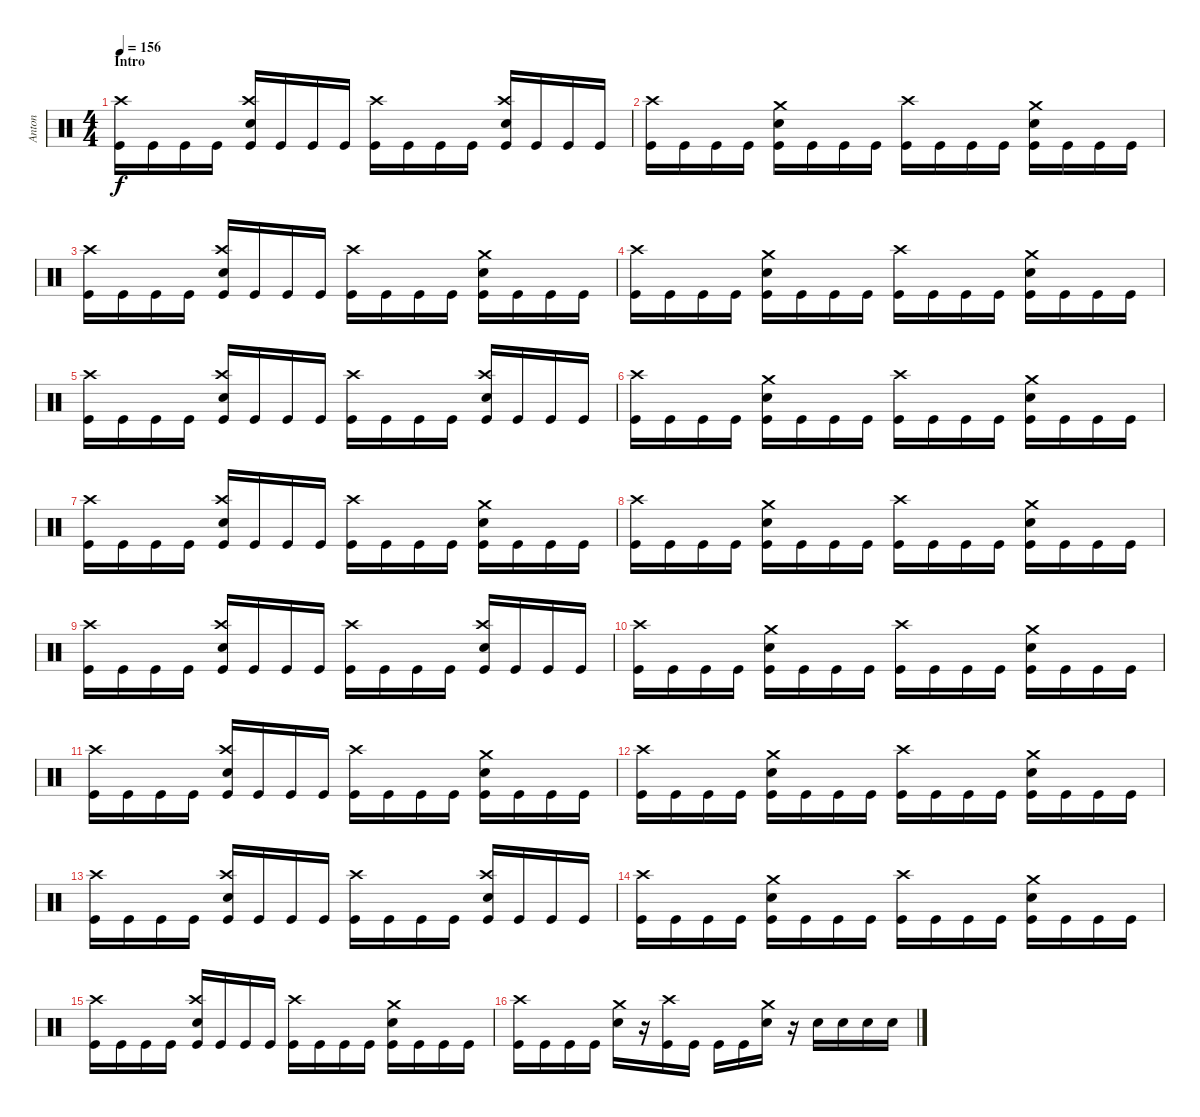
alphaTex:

\track ("Anton " "Anton ") {instrument percussion}
\staff
\articulation defaults
\ts (4 4)
\section ("" "Intro")
\tempo 156
\clef neutral
\ks c
("Kick (hit)" "Crash high (hit)").16{dy f} "Kick (hit)".16 "Kick (hit)".16 "Kick (hit)".16 ("Kick (hit)" "Crash high (hit)" "Snare (hit) 2").16 "Kick (hit)".16 "Kick (hit)".16 "Kick (hit)".16 ("Kick (hit)" "Crash high (hit)").16 "Kick (hit)".16 "Kick (hit)".16 "Kick (hit)".16 ("Kick (hit)" "Crash high (hit)" "Snare (hit) 2").16 "Kick (hit)".16 "Kick (hit)".16 "Kick (hit)".16 |
("Kick (hit)" "Crash high (hit)").16 "Kick (hit)".16 "Kick (hit)".16 "Kick (hit)".16 ("Kick (hit)" "Crash medium (hit)" "Snare (hit) 2").16 "Kick (hit)".16 "Kick (hit)".16 "Kick (hit)".16 ("Kick (hit)" "Crash high (hit)").16 "Kick (hit)".16 "Kick (hit)".16 "Kick (hit)".16 ("Kick (hit)" "Crash medium (hit)" "Snare (hit) 2").16 "Kick (hit)".16 "Kick (hit)".16 "Kick (hit)".16 |
("Kick (hit)" "Crash high (hit)").16 "Kick (hit)".16 "Kick (hit)".16 "Kick (hit)".16 ("Kick (hit)" "Crash high (hit)" "Snare (hit) 2").16 "Kick (hit)".16 "Kick (hit)".16 "Kick (hit)".16 ("Kick (hit)" "Crash high (hit)").16 "Kick (hit)".16 "Kick (hit)".16 "Kick (hit)".16 ("Kick (hit)" "Snare (hit) 2" "Crash medium (hit)").16 "Kick (hit)".16 "Kick (hit)".16 "Kick (hit)".16 |
("Kick (hit)" "Crash high (hit)").16 "Kick (hit)".16 "Kick (hit)".16 "Kick (hit)".16 ("Kick (hit)" "Crash medium (hit)" "Snare (hit) 2").16 "Kick (hit)".16 "Kick (hit)".16 "Kick (hit)".16 ("Kick (hit)" "Crash high (hit)").16 "Kick (hit)".16 "Kick (hit)".16 "Kick (hit)".16 ("Kick (hit)" "Crash medium (hit)" "Snare (hit) 2").16 "Kick (hit)".16 "Kick (hit)".16 "Kick (hit)".16 |
("Kick (hit)" "Crash high (hit)").16 "Kick (hit)".16 "Kick (hit)".16 "Kick (hit)".16 ("Kick (hit)" "Crash high (hit)" "Snare (hit) 2").16 "Kick (hit)".16 "Kick (hit)".16 "Kick (hit)".16 ("Kick (hit)" "Crash high (hit)").16 "Kick (hit)".16 "Kick (hit)".16 "Kick (hit)".16 ("Kick (hit)" "Crash high (hit)" "Snare (hit) 2").16 "Kick (hit)".16 "Kick (hit)".16 "Kick (hit)".16 |
("Kick (hit)" "Crash high (hit)").16 "Kick (hit)".16 "Kick (hit)".16 "Kick (hit)".16 ("Kick (hit)" "Crash medium (hit)" "Snare (hit) 2").16 "Kick (hit)".16 "Kick (hit)".16 "Kick (hit)".16 ("Kick (hit)" "Crash high (hit)").16 "Kick (hit)".16 "Kick (hit)".16 "Kick (hit)".16 ("Kick (hit)" "Crash medium (hit)" "Snare (hit) 2").16 "Kick (hit)".16 "Kick (hit)".16 "Kick (hit)".16 |
("Kick (hit)" "Crash high (hit)").16 "Kick (hit)".16 "Kick (hit)".16 "Kick (hit)".16 ("Kick (hit)" "Crash high (hit)" "Snare (hit) 2").16 "Kick (hit)".16 "Kick (hit)".16 "Kick (hit)".16 ("Kick (hit)" "Crash high (hit)").16 "Kick (hit)".16 "Kick (hit)".16 "Kick (hit)".16 ("Kick (hit)" "Snare (hit) 2" "Crash medium (hit)").16 "Kick (hit)".16 "Kick (hit)".16 "Kick (hit)".16 |
("Kick (hit)" "Crash high (hit)").16 "Kick (hit)".16 "Kick (hit)".16 "Kick (hit)".16 ("Kick (hit)" "Crash medium (hit)" "Snare (hit) 2").16 "Kick (hit)".16 "Kick (hit)".16 "Kick (hit)".16 ("Kick (hit)" "Crash high (hit)").16 "Kick (hit)".16 "Kick (hit)".16 "Kick (hit)".16 ("Kick (hit)" "Crash medium (hit)" "Snare (hit) 2").16 "Kick (hit)".16 "Kick (hit)".16 "Kick (hit)".16 |
("Kick (hit)" "Crash high (hit)").16 "Kick (hit)".16 "Kick (hit)".16 "Kick (hit)".16 ("Kick (hit)" "Crash high (hit)" "Snare (hit) 2").16 "Kick (hit)".16 "Kick (hit)".16 "Kick (hit)".16 ("Kick (hit)" "Crash high (hit)").16 "Kick (hit)".16 "Kick (hit)".16 "Kick (hit)".16 ("Kick (hit)" "Crash high (hit)" "Snare (hit) 2").16 "Kick (hit)".16 "Kick (hit)".16 "Kick (hit)".16 |
("Kick (hit)" "Crash high (hit)").16 "Kick (hit)".16 "Kick (hit)".16 "Kick (hit)".16 ("Kick (hit)" "Crash medium (hit)" "Snare (hit) 2").16 "Kick (hit)".16 "Kick (hit)".16 "Kick (hit)".16 ("Kick (hit)" "Crash high (hit)").16 "Kick (hit)".16 "Kick (hit)".16 "Kick (hit)".16 ("Kick (hit)" "Crash medium (hit)" "Snare (hit) 2").16 "Kick (hit)".16 "Kick (hit)".16 "Kick (hit)".16 |
("Kick (hit)" "Crash high (hit)").16 "Kick (hit)".16 "Kick (hit)".16 "Kick (hit)".16 ("Kick (hit)" "Crash high (hit)" "Snare (hit) 2").16 "Kick (hit)".16 "Kick (hit)".16 "Kick (hit)".16 ("Kick (hit)" "Crash high (hit)").16 "Kick (hit)".16 "Kick (hit)".16 "Kick (hit)".16 ("Kick (hit)" "Snare (hit) 2" "Crash medium (hit)").16 "Kick (hit)".16 "Kick (hit)".16 "Kick (hit)".16 |
("Kick (hit)" "Crash high (hit)").16 "Kick (hit)".16 "Kick (hit)".16 "Kick (hit)".16 ("Kick (hit)" "Crash medium (hit)" "Snare (hit) 2").16 "Kick (hit)".16 "Kick (hit)".16 "Kick (hit)".16 ("Kick (hit)" "Crash high (hit)").16 "Kick (hit)".16 "Kick (hit)".16 "Kick (hit)".16 ("Kick (hit)" "Crash medium (hit)" "Snare (hit) 2").16 "Kick (hit)".16 "Kick (hit)".16 "Kick (hit)".16 |
("Kick (hit)" "Crash high (hit)").16 "Kick (hit)".16 "Kick (hit)".16 "Kick (hit)".16 ("Kick (hit)" "Crash high (hit)" "Snare (hit) 2").16 "Kick (hit)".16 "Kick (hit)".16 "Kick (hit)".16 ("Kick (hit)" "Crash high (hit)").16 "Kick (hit)".16 "Kick (hit)".16 "Kick (hit)".16 ("Kick (hit)" "Crash high (hit)" "Snare (hit) 2").16 "Kick (hit)".16 "Kick (hit)".16 "Kick (hit)".16 |
("Kick (hit)" "Crash high (hit)").16 "Kick (hit)".16 "Kick (hit)".16 "Kick (hit)".16 ("Kick (hit)" "Crash medium (hit)" "Snare (hit) 2").16 "Kick (hit)".16 "Kick (hit)".16 "Kick (hit)".16 ("Kick (hit)" "Crash high (hit)").16 "Kick (hit)".16 "Kick (hit)".16 "Kick (hit)".16 ("Kick (hit)" "Crash medium (hit)" "Snare (hit) 2").16 "Kick (hit)".16 "Kick (hit)".16 "Kick (hit)".16 |
("Kick (hit)" "Crash high (hit)").16 "Kick (hit)".16 "Kick (hit)".16 "Kick (hit)".16 ("Kick (hit)" "Crash high (hit)" "Snare (hit) 2").16 "Kick (hit)".16 "Kick (hit)".16 "Kick (hit)".16 ("Kick (hit)" "Crash high (hit)").16 "Kick (hit)".16 "Kick (hit)".16 "Kick (hit)".16 ("Kick (hit)" "Snare (hit) 2" "Crash medium (hit)").16 "Kick (hit)".16 "Kick (hit)".16 "Kick (hit)".16 |
("Kick (hit)" "Crash high (hit)").16 "Kick (hit)".16 "Kick (hit)".16 "Kick (hit)".16 ("Crash medium (hit)" "Snare (hit) 2").16 r.16 ("Kick (hit)" "Crash high (hit)").16 "Kick (hit)".16 "Kick (hit)".16 "Kick (hit)".16 ("Snare (hit) 2" "Crash medium (hit)").16 r.16 "Snare (hit) 2".16 "Snare (hit) 2".16 "Snare (hit) 2".16 "Snare (hit) 2".16
